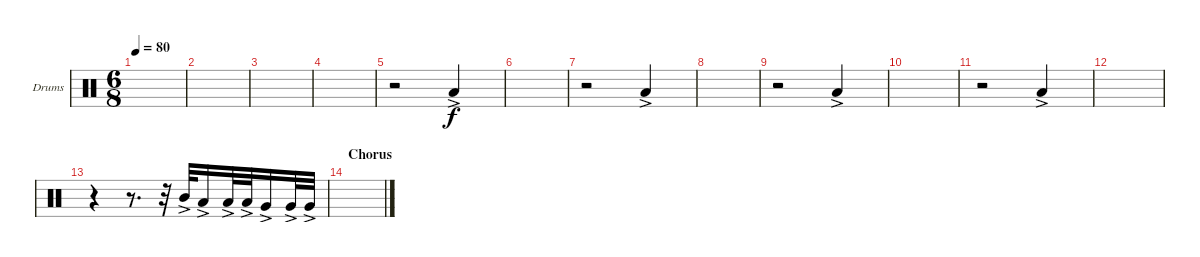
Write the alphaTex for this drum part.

\defaultSystemsLayout 4
\bracketExtendMode groupsimilarinstruments
\firstSystemTrackNameOrientation horizontal
\otherSystemsTrackNameOrientation horizontal
\track ("Drumkit" "Drums") {instrument percussion}
\staff {score}
\articulation defaults
\ts (6 8)
\tempo 80
\clef neutral
\scale
0.333333
\ks c
|
\scale
0.333333 |
\scale
0.333333 |
\scale
0.333333 |
\scale
0.333333 r.2 "Low Tom (hit)"{ac}.4 |
\scale
0.333333 |
\scale
0.333333 r.2 "Low Tom (hit)"{ac}.4 |
\scale
0.333333 |
\scale
0.333333 r.2 "Low Tom (hit)"{ac}.4 |
\scale
0.333333 |
\scale
0.333333 r.2 "Low Tom (hit)"{ac}.4 |
\scale
0.132716 |
\scale
0.832466 r.4 r.8{d} r.32 "Mid Tom (hit)"{ac}.32 "Low Tom (hit)"{ac}.16 "Low Tom (hit)"{ac}.32 "Low Tom (hit)"{ac}.32 "Very Low Tom (hit)"{ac}.16 "Very Low Tom (hit)"{ac}.32 "Very Low Tom (hit)"{ac}.32 |
\section ("" "Chorus")
\scale
0.0382979 |
\scale
0.333333 |
\scale
0.333333
